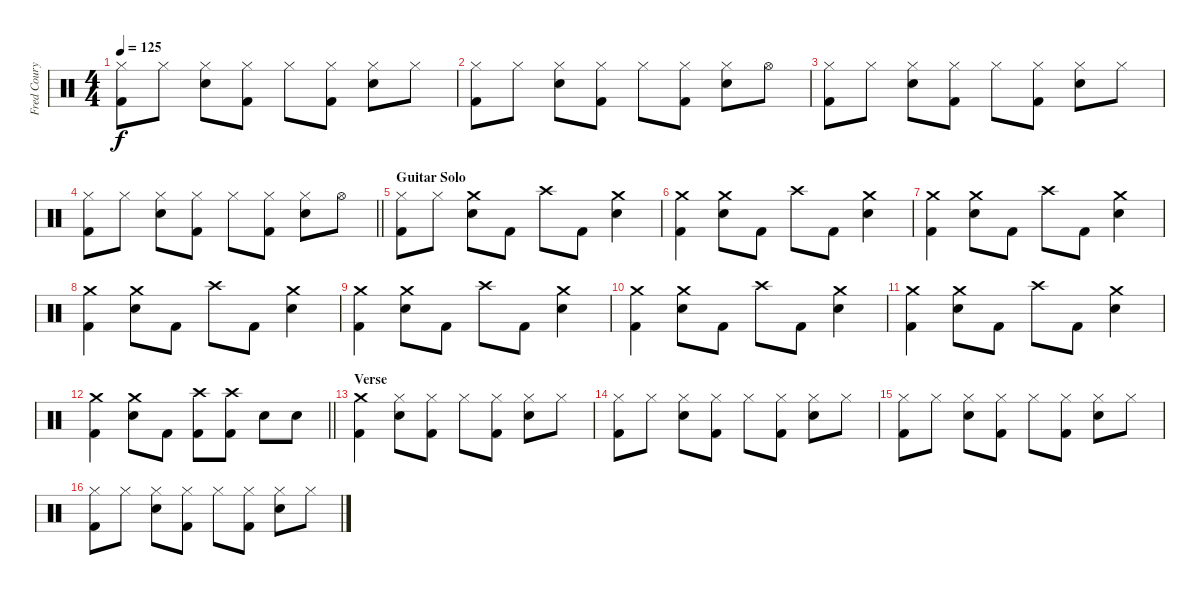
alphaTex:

\track ("Fred Coury - Drums" "Fred Coury") {instrument percussion}
\staff {score}
\articulation defaults
\ts (4 4)
\tempo 125
\clef neutral
\ks c
("Hi-Hat (closed)" "Kick (hit) 2").8{dy f} "Hi-Hat (closed)".8 ("Hi-Hat (closed)" "Snare (hit) 2").8 ("Hi-Hat (closed)" "Kick (hit) 2").8 "Hi-Hat (closed)".8 ("Hi-Hat (closed)" "Kick (hit) 2").8 ("Hi-Hat (closed)" "Snare (hit) 2").8 "Hi-Hat (closed)".8 |
("Hi-Hat (closed)" "Kick (hit) 2").8 "Hi-Hat (closed)".8 ("Hi-Hat (closed)" "Snare (hit) 2").8 ("Hi-Hat (closed)" "Kick (hit) 2").8 "Hi-Hat (closed)".8 ("Hi-Hat (closed)" "Kick (hit) 2").8 ("Hi-Hat (closed)" "Snare (hit) 2").8 "Hi-Hat (open)".8 |
("Hi-Hat (closed)" "Kick (hit) 2").8 "Hi-Hat (closed)".8 ("Hi-Hat (closed)" "Snare (hit) 2").8 ("Hi-Hat (closed)" "Kick (hit) 2").8 "Hi-Hat (closed)".8 ("Hi-Hat (closed)" "Kick (hit) 2").8 ("Hi-Hat (closed)" "Snare (hit) 2").8 "Hi-Hat (closed)".8 |
\barLineRight lightlight
("Hi-Hat (closed)" "Kick (hit) 2").8 "Hi-Hat (closed)".8 ("Hi-Hat (closed)" "Snare (hit) 2").8 ("Hi-Hat (closed)" "Kick (hit) 2").8 "Hi-Hat (closed)".8 ("Hi-Hat (closed)" "Kick (hit) 2").8 ("Hi-Hat (closed)" "Snare (hit) 2").8 "Hi-Hat (open)".8 |
\section ("" "Guitar Solo")
("Hi-Hat (closed)" "Kick (hit) 2").8 "Hi-Hat (closed)".8 ("Crash medium (hit)" "Snare (hit) 2").8 "Kick (hit) 2".8 "Crash high (hit)".8 "Kick (hit) 2".8 ("Crash medium (hit)" "Snare (hit) 2").4 |
("Crash medium (hit)" "Kick (hit) 2").4 ("Crash medium (hit)" "Snare (hit) 2").8 "Kick (hit) 2".8 "Crash high (hit)".8 "Kick (hit) 2".8 ("Crash medium (hit)" "Snare (hit) 2").4 |
("Crash medium (hit)" "Kick (hit) 2").4 ("Crash medium (hit)" "Snare (hit) 2").8 "Kick (hit) 2".8 "Crash high (hit)".8 "Kick (hit) 2".8 ("Crash medium (hit)" "Snare (hit) 2").4 |
("Crash medium (hit)" "Kick (hit) 2").4 ("Crash medium (hit)" "Snare (hit) 2").8 "Kick (hit) 2".8 "Crash high (hit)".8 "Kick (hit) 2".8 ("Crash medium (hit)" "Snare (hit) 2").4 |
("Crash medium (hit)" "Kick (hit) 2").4 ("Crash medium (hit)" "Snare (hit) 2").8 "Kick (hit) 2".8 "Crash high (hit)".8 "Kick (hit) 2".8 ("Crash medium (hit)" "Snare (hit) 2").4 |
("Crash medium (hit)" "Kick (hit) 2").4 ("Crash medium (hit)" "Snare (hit) 2").8 "Kick (hit) 2".8 "Crash high (hit)".8 "Kick (hit) 2".8 ("Crash medium (hit)" "Snare (hit) 2").4 |
("Crash medium (hit)" "Kick (hit) 2").4 ("Crash medium (hit)" "Snare (hit) 2").8 "Kick (hit) 2".8 "Crash high (hit)".8 "Kick (hit) 2".8 ("Crash medium (hit)" "Snare (hit) 2").4 |
\barLineRight lightlight
("Crash medium (hit)" "Kick (hit) 2").4 ("Crash medium (hit)" "Snare (hit) 2").8 "Kick (hit) 2".8 ("Crash high (hit)" "Kick (hit) 2").8 ("Crash high (hit)" "Kick (hit) 2").8 "Snare (hit) 2".8 "Snare (hit) 2".8 |
\section ("" "Verse")
("Crash medium (hit)" "Kick (hit) 2").4 ("Hi-Hat (closed)" "Snare (hit) 2").8 ("Hi-Hat (closed)" "Kick (hit) 2").8 "Hi-Hat (closed)".8 ("Hi-Hat (closed)" "Kick (hit) 2").8 ("Hi-Hat (closed)" "Snare (hit) 2").8 "Hi-Hat (closed)".8 |
("Hi-Hat (closed)" "Kick (hit) 2").8 "Hi-Hat (closed)".8 ("Hi-Hat (closed)" "Snare (hit) 2").8 ("Hi-Hat (closed)" "Kick (hit) 2").8 "Hi-Hat (closed)".8 ("Hi-Hat (closed)" "Kick (hit) 2").8 ("Hi-Hat (closed)" "Snare (hit) 2").8 "Hi-Hat (closed)".8 |
("Hi-Hat (closed)" "Kick (hit) 2").8 "Hi-Hat (closed)".8 ("Hi-Hat (closed)" "Snare (hit) 2").8 ("Hi-Hat (closed)" "Kick (hit) 2").8 "Hi-Hat (closed)".8 ("Hi-Hat (closed)" "Kick (hit) 2").8 ("Hi-Hat (closed)" "Snare (hit) 2").8 "Hi-Hat (closed)".8 |
("Hi-Hat (closed)" "Kick (hit) 2").8 "Hi-Hat (closed)".8 ("Hi-Hat (closed)" "Snare (hit) 2").8 ("Hi-Hat (closed)" "Kick (hit) 2").8 "Hi-Hat (closed)".8 ("Hi-Hat (closed)" "Kick (hit) 2").8 ("Hi-Hat (closed)" "Snare (hit) 2").8 "Hi-Hat (closed)".8
